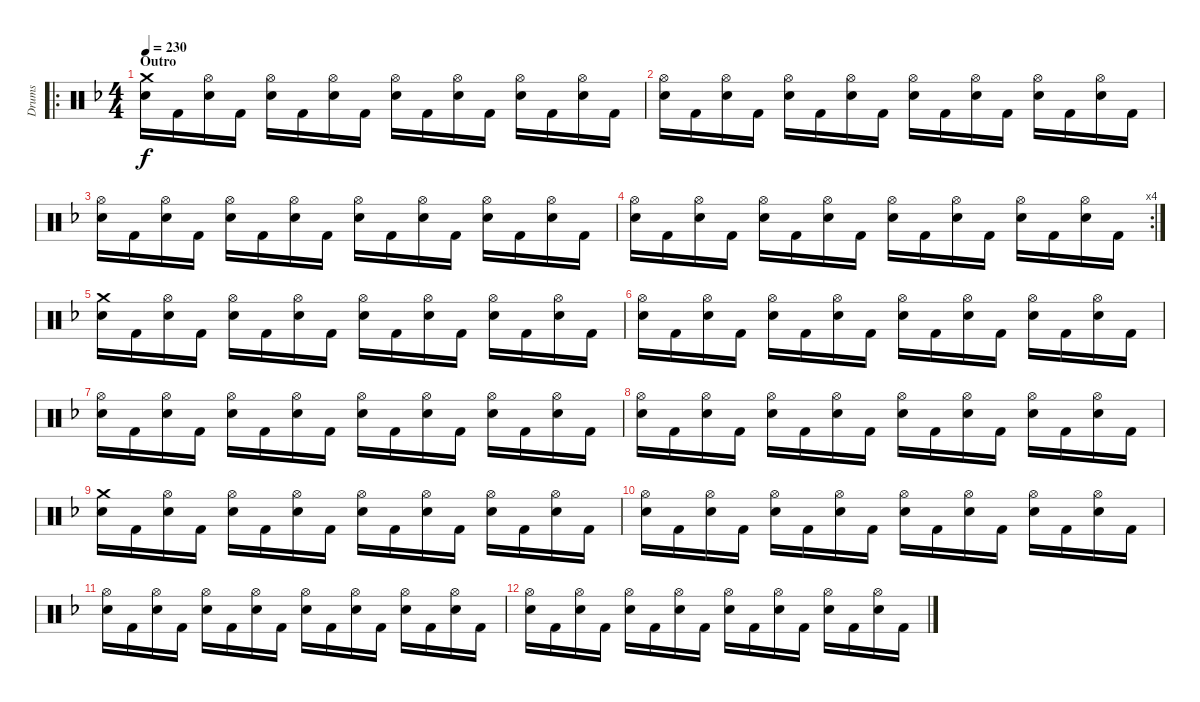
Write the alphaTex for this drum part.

\track ("Drums" "Drums") {instrument percussion}
\staff {score}
\articulation defaults
\ro
\ts (4 4)
\section ("" "Outro")
\tempo 230
\clef neutral
\ks f
("Crash medium (hit)" "Snare (hit) 2").16{dy f} "Kick (hit) 2".16 ("Hi-Hat (open)" "Snare (hit) 2").16 "Kick (hit) 2".16 ("Hi-Hat (open)" "Snare (hit) 2").16 "Kick (hit) 2".16 ("Hi-Hat (open)" "Snare (hit) 2").16 "Kick (hit) 2".16 ("Hi-Hat (open)" "Snare (hit) 2").16 "Kick (hit) 2".16 ("Hi-Hat (open)" "Snare (hit) 2").16 "Kick (hit) 2".16 ("Hi-Hat (open)" "Snare (hit) 2").16 "Kick (hit) 2".16 ("Hi-Hat (open)" "Snare (hit) 2").16 "Kick (hit) 2".16 |
("Hi-Hat (open)" "Snare (hit) 2").16 "Kick (hit) 2".16 ("Hi-Hat (open)" "Snare (hit) 2").16 "Kick (hit) 2".16 ("Hi-Hat (open)" "Snare (hit) 2").16 "Kick (hit) 2".16 ("Hi-Hat (open)" "Snare (hit) 2").16 "Kick (hit) 2".16 ("Hi-Hat (open)" "Snare (hit) 2").16 "Kick (hit) 2".16 ("Hi-Hat (open)" "Snare (hit) 2").16 "Kick (hit) 2".16 ("Hi-Hat (open)" "Snare (hit) 2").16 "Kick (hit) 2".16 ("Hi-Hat (open)" "Snare (hit) 2").16 "Kick (hit) 2".16 |
("Hi-Hat (open)" "Snare (hit) 2").16 "Kick (hit) 2".16 ("Hi-Hat (open)" "Snare (hit) 2").16 "Kick (hit) 2".16 ("Hi-Hat (open)" "Snare (hit) 2").16 "Kick (hit) 2".16 ("Hi-Hat (open)" "Snare (hit) 2").16 "Kick (hit) 2".16 ("Hi-Hat (open)" "Snare (hit) 2").16 "Kick (hit) 2".16 ("Hi-Hat (open)" "Snare (hit) 2").16 "Kick (hit) 2".16 ("Hi-Hat (open)" "Snare (hit) 2").16 "Kick (hit) 2".16 ("Hi-Hat (open)" "Snare (hit) 2").16 "Kick (hit) 2".16 |
\rc 4
("Hi-Hat (open)" "Snare (hit) 2").16 "Kick (hit) 2".16 ("Hi-Hat (open)" "Snare (hit) 2").16 "Kick (hit) 2".16 ("Hi-Hat (open)" "Snare (hit) 2").16 "Kick (hit) 2".16 ("Hi-Hat (open)" "Snare (hit) 2").16 "Kick (hit) 2".16 ("Hi-Hat (open)" "Snare (hit) 2").16 "Kick (hit) 2".16 ("Hi-Hat (open)" "Snare (hit) 2").16 "Kick (hit) 2".16 ("Hi-Hat (open)" "Snare (hit) 2").16 "Kick (hit) 2".16 ("Hi-Hat (open)" "Snare (hit) 2").16 "Kick (hit) 2".16 |
("Crash medium (hit)" "Snare (hit) 2").16 "Kick (hit) 2".16 ("Hi-Hat (open)" "Snare (hit) 2").16 "Kick (hit) 2".16 ("Hi-Hat (open)" "Snare (hit) 2").16 "Kick (hit) 2".16 ("Hi-Hat (open)" "Snare (hit) 2").16 "Kick (hit) 2".16 ("Hi-Hat (open)" "Snare (hit) 2").16 "Kick (hit) 2".16 ("Hi-Hat (open)" "Snare (hit) 2").16 "Kick (hit) 2".16 ("Hi-Hat (open)" "Snare (hit) 2").16 "Kick (hit) 2".16 ("Hi-Hat (open)" "Snare (hit) 2").16 "Kick (hit) 2".16 |
("Hi-Hat (open)" "Snare (hit) 2").16 "Kick (hit) 2".16 ("Hi-Hat (open)" "Snare (hit) 2").16 "Kick (hit) 2".16 ("Hi-Hat (open)" "Snare (hit) 2").16 "Kick (hit) 2".16 ("Hi-Hat (open)" "Snare (hit) 2").16 "Kick (hit) 2".16 ("Hi-Hat (open)" "Snare (hit) 2").16 "Kick (hit) 2".16 ("Hi-Hat (open)" "Snare (hit) 2").16 "Kick (hit) 2".16 ("Hi-Hat (open)" "Snare (hit) 2").16 "Kick (hit) 2".16 ("Hi-Hat (open)" "Snare (hit) 2").16 "Kick (hit) 2".16 |
("Hi-Hat (open)" "Snare (hit) 2").16 "Kick (hit) 2".16 ("Hi-Hat (open)" "Snare (hit) 2").16 "Kick (hit) 2".16 ("Hi-Hat (open)" "Snare (hit) 2").16 "Kick (hit) 2".16 ("Hi-Hat (open)" "Snare (hit) 2").16 "Kick (hit) 2".16 ("Hi-Hat (open)" "Snare (hit) 2").16 "Kick (hit) 2".16 ("Hi-Hat (open)" "Snare (hit) 2").16 "Kick (hit) 2".16 ("Hi-Hat (open)" "Snare (hit) 2").16 "Kick (hit) 2".16 ("Hi-Hat (open)" "Snare (hit) 2").16 "Kick (hit) 2".16 |
("Hi-Hat (open)" "Snare (hit) 2").16 "Kick (hit) 2".16 ("Hi-Hat (open)" "Snare (hit) 2").16 "Kick (hit) 2".16 ("Hi-Hat (open)" "Snare (hit) 2").16 "Kick (hit) 2".16 ("Hi-Hat (open)" "Snare (hit) 2").16 "Kick (hit) 2".16 ("Hi-Hat (open)" "Snare (hit) 2").16 "Kick (hit) 2".16 ("Hi-Hat (open)" "Snare (hit) 2").16 "Kick (hit) 2".16 ("Hi-Hat (open)" "Snare (hit) 2").16 "Kick (hit) 2".16 ("Hi-Hat (open)" "Snare (hit) 2").16 "Kick (hit) 2".16 |
("Crash medium (hit)" "Snare (hit) 2").16 "Kick (hit) 2".16 ("Hi-Hat (open)" "Snare (hit) 2").16 "Kick (hit) 2".16 ("Hi-Hat (open)" "Snare (hit) 2").16 "Kick (hit) 2".16 ("Hi-Hat (open)" "Snare (hit) 2").16 "Kick (hit) 2".16 ("Hi-Hat (open)" "Snare (hit) 2").16 "Kick (hit) 2".16 ("Hi-Hat (open)" "Snare (hit) 2").16 "Kick (hit) 2".16 ("Hi-Hat (open)" "Snare (hit) 2").16 "Kick (hit) 2".16 ("Hi-Hat (open)" "Snare (hit) 2").16 "Kick (hit) 2".16 |
("Hi-Hat (open)" "Snare (hit) 2").16 "Kick (hit) 2".16 ("Hi-Hat (open)" "Snare (hit) 2").16 "Kick (hit) 2".16 ("Hi-Hat (open)" "Snare (hit) 2").16 "Kick (hit) 2".16 ("Hi-Hat (open)" "Snare (hit) 2").16 "Kick (hit) 2".16 ("Hi-Hat (open)" "Snare (hit) 2").16 "Kick (hit) 2".16 ("Hi-Hat (open)" "Snare (hit) 2").16 "Kick (hit) 2".16 ("Hi-Hat (open)" "Snare (hit) 2").16 "Kick (hit) 2".16 ("Hi-Hat (open)" "Snare (hit) 2").16 "Kick (hit) 2".16 |
("Hi-Hat (open)" "Snare (hit) 2").16 "Kick (hit) 2".16 ("Hi-Hat (open)" "Snare (hit) 2").16 "Kick (hit) 2".16 ("Hi-Hat (open)" "Snare (hit) 2").16 "Kick (hit) 2".16 ("Hi-Hat (open)" "Snare (hit) 2").16 "Kick (hit) 2".16 ("Hi-Hat (open)" "Snare (hit) 2").16 "Kick (hit) 2".16 ("Hi-Hat (open)" "Snare (hit) 2").16 "Kick (hit) 2".16 ("Hi-Hat (open)" "Snare (hit) 2").16 "Kick (hit) 2".16 ("Hi-Hat (open)" "Snare (hit) 2").16 "Kick (hit) 2".16 |
("Hi-Hat (open)" "Snare (hit) 2").16 "Kick (hit) 2".16 ("Hi-Hat (open)" "Snare (hit) 2").16 "Kick (hit) 2".16 ("Hi-Hat (open)" "Snare (hit) 2").16 "Kick (hit) 2".16 ("Hi-Hat (open)" "Snare (hit) 2").16 "Kick (hit) 2".16 ("Hi-Hat (open)" "Snare (hit) 2").16 "Kick (hit) 2".16 ("Hi-Hat (open)" "Snare (hit) 2").16 "Kick (hit) 2".16 ("Hi-Hat (open)" "Snare (hit) 2").16 "Kick (hit) 2".16 ("Hi-Hat (open)" "Snare (hit) 2").16 "Kick (hit) 2".16
